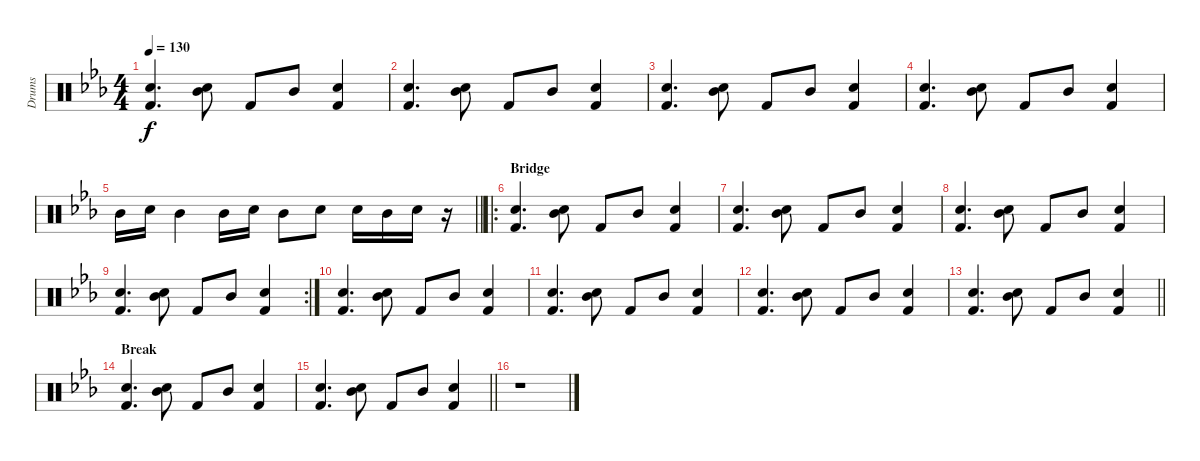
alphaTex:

\track ("Drums" "Drums") {instrument percussion}
\staff {score}
\articulation defaults
\ts (4 4)
\tempo 130
\clef neutral
\ks eb
("Electric Snare (hit)" "Kick (hit) 2").4{d dy f} ("Mid Tom (hit)" "Electric Snare (hit)").8 "Kick (hit) 2".8 "Mid Tom (hit)".8 ("Electric Snare (hit)" "Kick (hit) 2").4 |
("Electric Snare (hit)" "Kick (hit) 2").4{d} ("Mid Tom (hit)" "Electric Snare (hit)").8 "Kick (hit) 2".8 "Mid Tom (hit)".8 ("Electric Snare (hit)" "Kick (hit) 2").4 |
("Electric Snare (hit)" "Kick (hit) 2").4{d} ("Mid Tom (hit)" "Electric Snare (hit)").8 "Kick (hit) 2".8 "Mid Tom (hit)".8 ("Electric Snare (hit)" "Kick (hit) 2").4 |
("Electric Snare (hit)" "Kick (hit) 2").4{d} ("Mid Tom (hit)" "Electric Snare (hit)").8 "Kick (hit) 2".8 "Mid Tom (hit)".8 ("Electric Snare (hit)" "Kick (hit) 2").4 |
\barLineRight lightlight "Mid Tom (hit)".16 "Electric Snare (hit)".16 "Mid Tom (hit)".4 "Mid Tom (hit)".16 "Electric Snare (hit)".16 "Mid Tom (hit)".8 "Electric Snare (hit)".8 "Electric Snare (hit)".16 "Mid Tom (hit)".16 "Electric Snare (hit)".16
r.16 |
\ro
\section ("" "Bridge")
("Electric Snare (hit)" "Kick (hit) 2").4{d} ("Mid Tom (hit)" "Electric Snare (hit)").8 "Kick (hit) 2".8 "Mid Tom (hit)".8 ("Electric Snare (hit)" "Kick (hit) 2").4 |
("Electric Snare (hit)" "Kick (hit) 2").4{d} ("Mid Tom (hit)" "Electric Snare (hit)").8 "Kick (hit) 2".8 "Mid Tom (hit)".8 ("Electric Snare (hit)" "Kick (hit) 2").4 |
("Electric Snare (hit)" "Kick (hit) 2").4{d} ("Mid Tom (hit)" "Electric Snare (hit)").8 "Kick (hit) 2".8 "Mid Tom (hit)".8 ("Electric Snare (hit)" "Kick (hit) 2").4 |
\rc 2
("Electric Snare (hit)" "Kick (hit) 2").4{d} ("Mid Tom (hit)" "Electric Snare (hit)").8 "Kick (hit) 2".8 "Mid Tom (hit)".8 ("Electric Snare (hit)" "Kick (hit) 2").4 |
("Electric Snare (hit)" "Kick (hit) 2").4{d} ("Mid Tom (hit)" "Electric Snare (hit)").8 "Kick (hit) 2".8 "Mid Tom (hit)".8 ("Electric Snare (hit)" "Kick (hit) 2").4 |
("Electric Snare (hit)" "Kick (hit) 2").4{d} ("Mid Tom (hit)" "Electric Snare (hit)").8 "Kick (hit) 2".8 "Mid Tom (hit)".8 ("Electric Snare (hit)" "Kick (hit) 2").4 |
("Electric Snare (hit)" "Kick (hit) 2").4{d} ("Mid Tom (hit)" "Electric Snare (hit)").8 "Kick (hit) 2".8 "Mid Tom (hit)".8 ("Electric Snare (hit)" "Kick (hit) 2").4 |
\barLineRight lightlight
("Electric Snare (hit)" "Kick (hit) 2").4{d} ("Mid Tom (hit)" "Electric Snare (hit)").8 "Kick (hit) 2".8 "Mid Tom (hit)".8 ("Electric Snare (hit)" "Kick (hit) 2").4 |
\section ("" "Break")
("Electric Snare (hit)" "Kick (hit) 2").4{d} ("Mid Tom (hit)" "Electric Snare (hit)").8 "Kick (hit) 2".8 "Mid Tom (hit)".8 ("Electric Snare (hit)" "Kick (hit) 2").4 |
\barLineRight lightlight
("Electric Snare (hit)" "Kick (hit) 2").4{d} ("Mid Tom (hit)" "Electric Snare (hit)").8 "Kick (hit) 2".8 "Mid Tom (hit)".8 ("Electric Snare (hit)" "Kick (hit) 2").4 |
r.1
